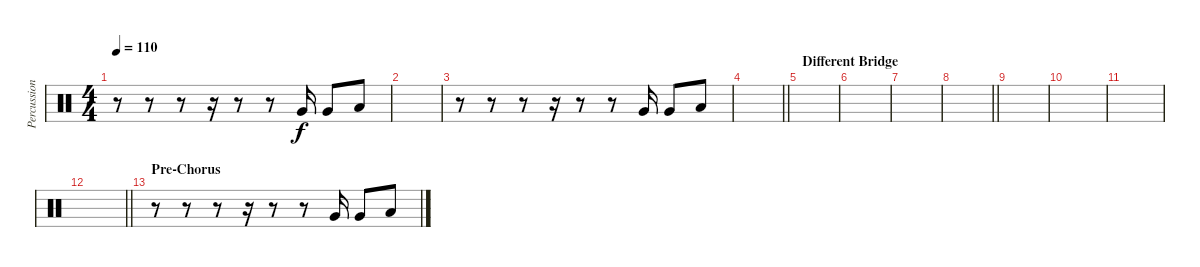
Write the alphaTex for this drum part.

\track ("Percussion Toms" "Percussion") {instrument percussion}
\staff {score}
\articulation defaults
\ts (4 4)
\tempo 110
\clef neutral
\ks c
r.8{dy f} r.8 r.8 r.16 r.8 r.8 "Very Low Tom (hit)".16 "Very Low Tom (hit)".8 "Low Floor Tom (hit)".8 |
|
r.8 r.8 r.8 r.16 r.8 r.8 "Very Low Tom (hit)".16 "Very Low Tom (hit)".8 "Low Floor Tom (hit)".8 |
\barLineRight lightlight
|
\section ("" "Different Bridge")
|
|
|
\barLineRight lightlight
|
|
|
|
\barLineRight lightlight
|
\section ("" "Pre-Chorus")
r.8 r.8 r.8 r.16 r.8 r.8 "Very Low Tom (hit)".16 "Very Low Tom (hit)".8 "Low Floor Tom (hit)".8
